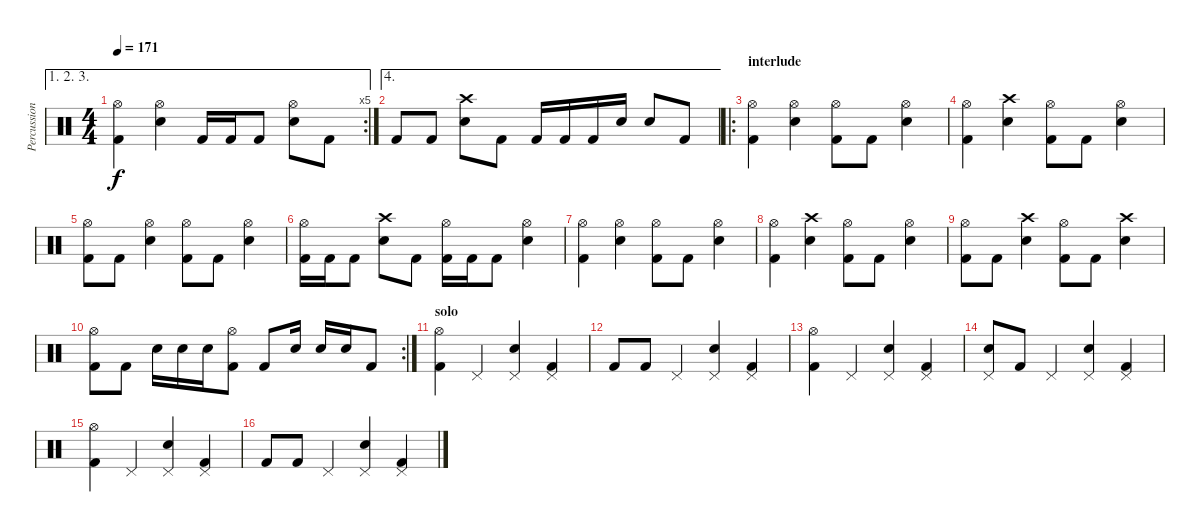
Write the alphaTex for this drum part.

\track ("Percussion" "Percussion") {instrument percussion}
\staff {score}
\articulation defaults
\ae (1 2 3)
\rc 5
\ts (4 4)
\tempo 171
\clef neutral
\ks c
("Hi-Hat (open)" "Kick (hit) 2").4{dy f} ("Hi-Hat (open)" "Electric Snare (hit)").4 "Kick (hit) 2".16 "Kick (hit) 2".16 "Kick (hit) 2".8 ("Hi-Hat (open)" "Electric Snare (hit)").8 "Kick (hit) 2".8 |
\ae 4 "Kick (hit) 2".8 "Kick (hit) 2".8
("Crash high (hit)" "Electric Snare (hit)").8 "Kick (hit) 2".8 "Kick (hit) 2".16 "Kick (hit) 2".16 "Kick (hit) 2".16 "Electric Snare (hit)".16 "Electric Snare (hit)".8 "Kick (hit) 2".8 |
\ro
\section ("" "interlude")
("Hi-Hat (open)" "Kick (hit) 2").4 ("Hi-Hat (open)" "Electric Snare (hit)").4 ("Hi-Hat (open)" "Kick (hit) 2").8 "Kick (hit) 2".8 ("Hi-Hat (open)" "Electric Snare (hit)").4 |
("Hi-Hat (open)" "Kick (hit) 2").4 ("Crash high (hit)" "Electric Snare (hit)").4 ("Hi-Hat (open)" "Kick (hit) 2").8 "Kick (hit) 2".8 ("Hi-Hat (open)" "Electric Snare (hit)").4 |
("Hi-Hat (open)" "Kick (hit) 2").8 "Kick (hit) 2".8 ("Hi-Hat (open)" "Electric Snare (hit)").4 ("Hi-Hat (open)" "Kick (hit) 2").8 "Kick (hit) 2".8 ("Hi-Hat (open)" "Electric Snare (hit)").4 |
("Hi-Hat (open)" "Kick (hit) 2").16 "Kick (hit) 2".16 "Kick (hit) 2".8 ("Crash high (hit)" "Electric Snare (hit)").8 "Kick (hit) 2".8 ("Hi-Hat (open)" "Kick (hit) 2").16 "Kick (hit) 2".16 "Kick (hit) 2".8 ("Hi-Hat (open)" "Electric Snare (hit)").4 |
("Hi-Hat (open)" "Kick (hit) 2").4 ("Hi-Hat (open)" "Electric Snare (hit)").4 ("Hi-Hat (open)" "Kick (hit) 2").8 "Kick (hit) 2".8 ("Hi-Hat (open)" "Electric Snare (hit)").4 |
("Hi-Hat (open)" "Kick (hit) 2").4 ("Crash high (hit)" "Electric Snare (hit)").4 ("Hi-Hat (open)" "Kick (hit) 2").8 "Kick (hit) 2".8 ("Hi-Hat (open)" "Electric Snare (hit)").4 |
("Hi-Hat (open)" "Kick (hit) 2").8 "Kick (hit) 2".8 ("Crash high (hit)" "Electric Snare (hit)").4 ("Hi-Hat (open)" "Kick (hit) 2").8 "Kick (hit) 2".8 ("Crash high (hit)" "Electric Snare (hit)").4 |
\rc 2
("Hi-Hat (open)" "Kick (hit) 2").8 "Kick (hit) 2".8 "Electric Snare (hit)".16 "Electric Snare (hit)".16 "Electric Snare (hit)".16 ("Hi-Hat (open)" "Kick (hit) 2").8 "Kick (hit) 2".8 "Electric Snare (hit)".16 "Electric Snare (hit)".16 "Electric Snare (hit)".16 "Kick (hit) 2".8 |
\section ("" "solo")
("Hi-Hat (open)" "Kick (hit) 2").4 "Pedal Hi-Hat (hit)".4 ("Pedal Hi-Hat (hit)" "Electric Snare (hit)").4 ("Pedal Hi-Hat (hit)" "Kick (hit) 2").4 |
"Kick (hit) 2".8 "Kick (hit) 2".8 "Pedal Hi-Hat (hit)".4 ("Pedal Hi-Hat (hit)" "Electric Snare (hit)").4 ("Pedal Hi-Hat (hit)" "Kick (hit) 2").4 |
("Hi-Hat (open)" "Kick (hit) 2").4 "Pedal Hi-Hat (hit)".4 ("Pedal Hi-Hat (hit)" "Electric Snare (hit)").4 ("Pedal Hi-Hat (hit)" "Kick (hit) 2").4 |
("Pedal Hi-Hat (hit)" "Electric Snare (hit)").8 "Kick (hit) 2".8 "Pedal Hi-Hat (hit)".4 ("Pedal Hi-Hat (hit)" "Electric Snare (hit)").4 ("Pedal Hi-Hat (hit)" "Kick (hit) 2").4 |
("Hi-Hat (open)" "Kick (hit) 2").4 "Pedal Hi-Hat (hit)".4 ("Pedal Hi-Hat (hit)" "Electric Snare (hit)").4 ("Pedal Hi-Hat (hit)" "Kick (hit) 2").4 |
"Kick (hit) 2".8 "Kick (hit) 2".8 "Pedal Hi-Hat (hit)".4 ("Pedal Hi-Hat (hit)" "Electric Snare (hit)").4 ("Pedal Hi-Hat (hit)" "Kick (hit) 2").4
